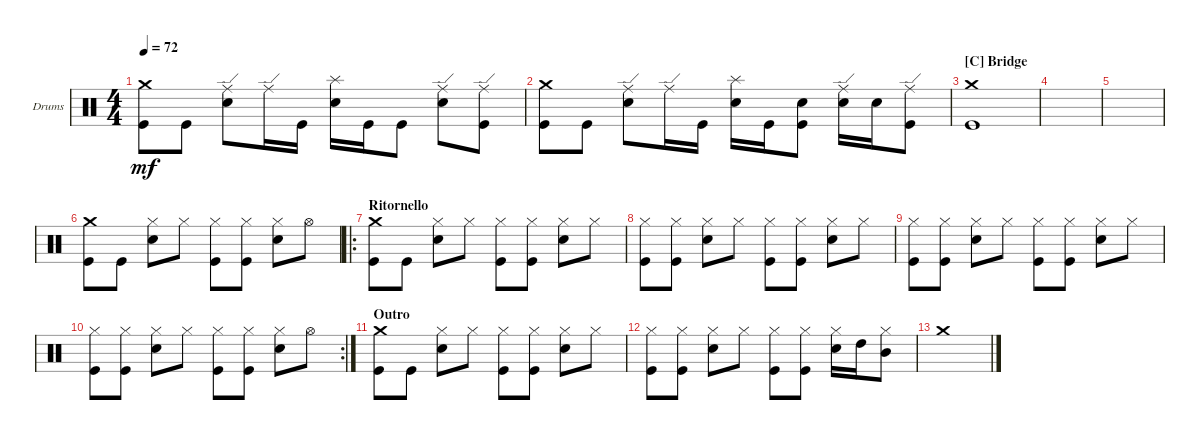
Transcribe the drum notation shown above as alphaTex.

\defaultSystemsLayout 4
\bracketExtendMode groupsimilarinstruments
\firstSystemTrackNameOrientation horizontal
\otherSystemsTrackNameOrientation horizontal
\track ("Drums" "Drums") {instrument percussion}
\staff {score}
\articulation defaults
\ts (4 4)
\tempo 72
\clef neutral
\ks c
("Kick (hit)" "Crash medium (hit)").8{dy mf} "Kick (hit)".8 ("Snare (hit) 2" "Ride (edge)").8 "Ride (edge)".16 "Kick (hit)".16 ("Snare (hit) 2" "Splash (hit)").16 "Kick (hit)".16 "Kick (hit)".8 ("Snare (hit) 2" "Ride (edge)").8 ("Ride (edge)" "Kick (hit)").8 |
("Kick (hit)" "Crash medium (hit)").8 "Kick (hit)".8 ("Snare (hit) 2" "Ride (edge)").8 "Ride (edge)".16 "Kick (hit)".16 ("Snare (hit) 2" "Splash (hit)").16 "Kick (hit)".16 ("Kick (hit)" "Snare (hit) 2").8 ("Snare (hit) 2" "Ride (edge)").16 "Snare (hit) 2".16 ("Ride (edge)" "Kick (hit)").8 |
\section ("C" "Bridge")
("Crash medium (hit)" "Kick (hit)").1 |
|
|
("Kick (hit)" "Crash medium (hit)").8 "Kick (hit)".8 ("Hi-Hat (closed)" "Snare (hit) 2").8 "Hi-Hat (closed)".8 ("Hi-Hat (closed)" "Kick (hit)").8 ("Hi-Hat (closed)" "Kick (hit)").8 ("Hi-Hat (closed)" "Snare (hit) 2").8 "Hi-Hat (open)".8 |
\ro
\section ("" "Ritornello")
("Kick (hit)" "Crash medium (hit)").8 "Kick (hit)".8 ("Hi-Hat (closed)" "Snare (hit) 2").8 "Hi-Hat (closed)".8 ("Hi-Hat (closed)" "Kick (hit)").8 ("Hi-Hat (closed)" "Kick (hit)").8 ("Hi-Hat (closed)" "Snare (hit) 2").8 "Hi-Hat (closed)".8 |
("Kick (hit)" "Hi-Hat (closed)").8 ("Hi-Hat (closed)" "Kick (hit)").8 ("Hi-Hat (closed)" "Snare (hit) 2").8 "Hi-Hat (closed)".8 ("Hi-Hat (closed)" "Kick (hit)").8 ("Hi-Hat (closed)" "Kick (hit)").8 ("Hi-Hat (closed)" "Snare (hit) 2").8 "Hi-Hat (closed)".8 |
("Kick (hit)" "Hi-Hat (closed)").8 ("Hi-Hat (closed)" "Kick (hit)").8 ("Hi-Hat (closed)" "Snare (hit) 2").8 "Hi-Hat (closed)".8 ("Hi-Hat (closed)" "Kick (hit)").8 ("Hi-Hat (closed)" "Kick (hit)").8 ("Hi-Hat (closed)" "Snare (hit) 2").8 "Hi-Hat (closed)".8 |
\rc 2
("Kick (hit)" "Hi-Hat (closed)").8 ("Hi-Hat (closed)" "Kick (hit)").8 ("Hi-Hat (closed)" "Snare (hit) 2").8 "Hi-Hat (closed)".8 ("Hi-Hat (closed)" "Kick (hit)").8 ("Hi-Hat (closed)" "Kick (hit)").8 ("Hi-Hat (closed)" "Snare (hit) 2").8 "Hi-Hat (open)".8 |
\section ("" "Outro")
("Kick (hit)" "Crash medium (hit)").8 "Kick (hit)".8 ("Hi-Hat (closed)" "Snare (hit) 2").8 "Hi-Hat (closed)".8 ("Hi-Hat (closed)" "Kick (hit)").8 ("Hi-Hat (closed)" "Kick (hit)").8 ("Hi-Hat (closed)" "Snare (hit) 2").8 "Hi-Hat (closed)".8 |
("Kick (hit)" "Hi-Hat (closed)").8 ("Hi-Hat (closed)" "Kick (hit)").8 ("Hi-Hat (closed)" "Snare (hit) 2").8 "Hi-Hat (closed)".8 ("Hi-Hat (closed)" "Kick (hit)").8 ("Hi-Hat (closed)" "Kick (hit)").8 ("Hi-Hat (closed)" "Snare (hit) 2").16 "High Tom (hit)".16 ("Mid Tom (hit)" "Hi-Hat (closed)").8 |
"Crash medium (hit)".1
